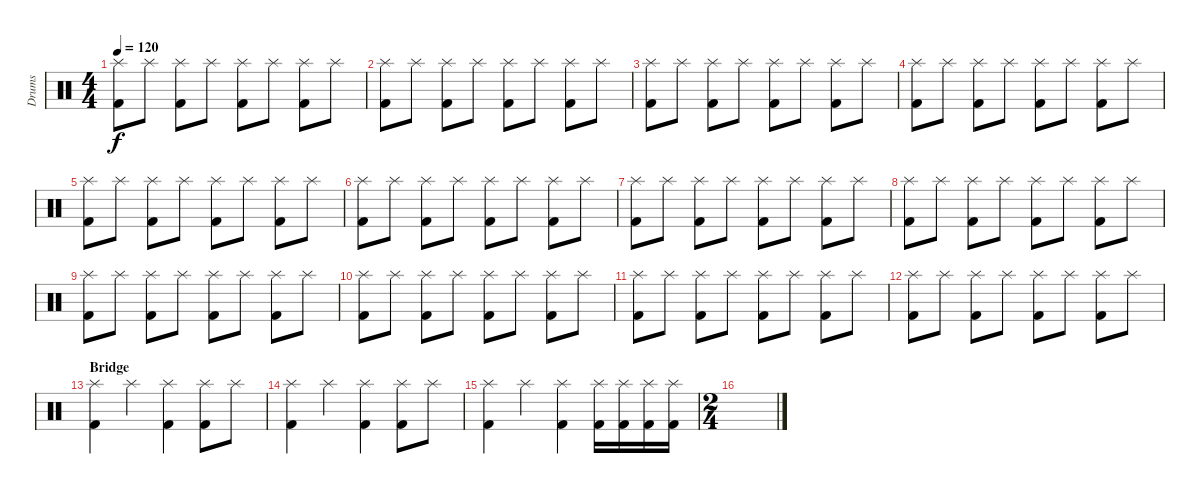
\track ("Drums" "Drums") {instrument percussion}
\staff {score}
\articulation defaults
\ts (4 4)
\tempo 120
\clef neutral
\ks c
("Splash (hit)" "Kick (hit) 2").8{dy f} "Splash (hit)".8 ("Splash (hit)" "Kick (hit) 2").8 "Splash (hit)".8 ("Splash (hit)" "Kick (hit) 2").8 "Splash (hit)".8 ("Splash (hit)" "Kick (hit) 2").8 "Splash (hit)".8 |
("Splash (hit)" "Kick (hit) 2").8 "Splash (hit)".8 ("Splash (hit)" "Kick (hit) 2").8 "Splash (hit)".8 ("Splash (hit)" "Kick (hit) 2").8 "Splash (hit)".8 ("Splash (hit)" "Kick (hit) 2").8 "Splash (hit)".8 |
("Splash (hit)" "Kick (hit) 2").8 "Splash (hit)".8 ("Splash (hit)" "Kick (hit) 2").8 "Splash (hit)".8 ("Splash (hit)" "Kick (hit) 2").8 "Splash (hit)".8 ("Splash (hit)" "Kick (hit) 2").8 "Splash (hit)".8 |
("Splash (hit)" "Kick (hit) 2").8 "Splash (hit)".8 ("Splash (hit)" "Kick (hit) 2").8 "Splash (hit)".8 ("Splash (hit)" "Kick (hit) 2").8 "Splash (hit)".8 ("Splash (hit)" "Kick (hit) 2").8 "Splash (hit)".8 |
("Splash (hit)" "Kick (hit) 2").8 "Splash (hit)".8 ("Splash (hit)" "Kick (hit) 2").8 "Splash (hit)".8 ("Splash (hit)" "Kick (hit) 2").8 "Splash (hit)".8 ("Splash (hit)" "Kick (hit) 2").8 "Splash (hit)".8 |
("Splash (hit)" "Kick (hit) 2").8 "Splash (hit)".8 ("Splash (hit)" "Kick (hit) 2").8 "Splash (hit)".8 ("Splash (hit)" "Kick (hit) 2").8 "Splash (hit)".8 ("Splash (hit)" "Kick (hit) 2").8 "Splash (hit)".8 |
("Splash (hit)" "Kick (hit) 2").8 "Splash (hit)".8 ("Splash (hit)" "Kick (hit) 2").8 "Splash (hit)".8 ("Splash (hit)" "Kick (hit) 2").8 "Splash (hit)".8 ("Splash (hit)" "Kick (hit) 2").8 "Splash (hit)".8 |
("Splash (hit)" "Kick (hit) 2").8 "Splash (hit)".8 ("Splash (hit)" "Kick (hit) 2").8 "Splash (hit)".8 ("Splash (hit)" "Kick (hit) 2").8 "Splash (hit)".8 ("Splash (hit)" "Kick (hit) 2").8 "Splash (hit)".8 |
("Splash (hit)" "Kick (hit) 2").8 "Splash (hit)".8 ("Splash (hit)" "Kick (hit) 2").8 "Splash (hit)".8 ("Splash (hit)" "Kick (hit) 2").8 "Splash (hit)".8 ("Splash (hit)" "Kick (hit) 2").8 "Splash (hit)".8 |
("Splash (hit)" "Kick (hit) 2").8 "Splash (hit)".8 ("Splash (hit)" "Kick (hit) 2").8 "Splash (hit)".8 ("Splash (hit)" "Kick (hit) 2").8 "Splash (hit)".8 ("Splash (hit)" "Kick (hit) 2").8 "Splash (hit)".8 |
("Splash (hit)" "Kick (hit) 2").8 "Splash (hit)".8 ("Splash (hit)" "Kick (hit) 2").8 "Splash (hit)".8 ("Splash (hit)" "Kick (hit) 2").8 "Splash (hit)".8 ("Splash (hit)" "Kick (hit) 2").8 "Splash (hit)".8 |
("Splash (hit)" "Kick (hit) 2").8 "Splash (hit)".8 ("Splash (hit)" "Kick (hit) 2").8 "Splash (hit)".8 ("Splash (hit)" "Kick (hit) 2").8 "Splash (hit)".8 ("Splash (hit)" "Kick (hit) 2").8 "Splash (hit)".8 |
\section ("" "Bridge")
("Splash (hit)" "Kick (hit) 2").4 "Splash (hit)".4 ("Splash (hit)" "Kick (hit) 2").4 ("Splash (hit)" "Kick (hit) 2").8 "Splash (hit)".8 |
("Splash (hit)" "Kick (hit) 2").4 "Splash (hit)".4 ("Splash (hit)" "Kick (hit) 2").4 ("Splash (hit)" "Kick (hit) 2").8 "Splash (hit)".8 |
("Splash (hit)" "Kick (hit) 2").4 "Splash (hit)".4 ("Splash (hit)" "Kick (hit) 2").4 ("Splash (hit)" "Kick (hit) 2").16 ("Splash (hit)" "Kick (hit) 2").16 ("Splash (hit)" "Kick (hit) 2").16 ("Splash (hit)" "Kick (hit) 2").16 |
\ts (2 4)
